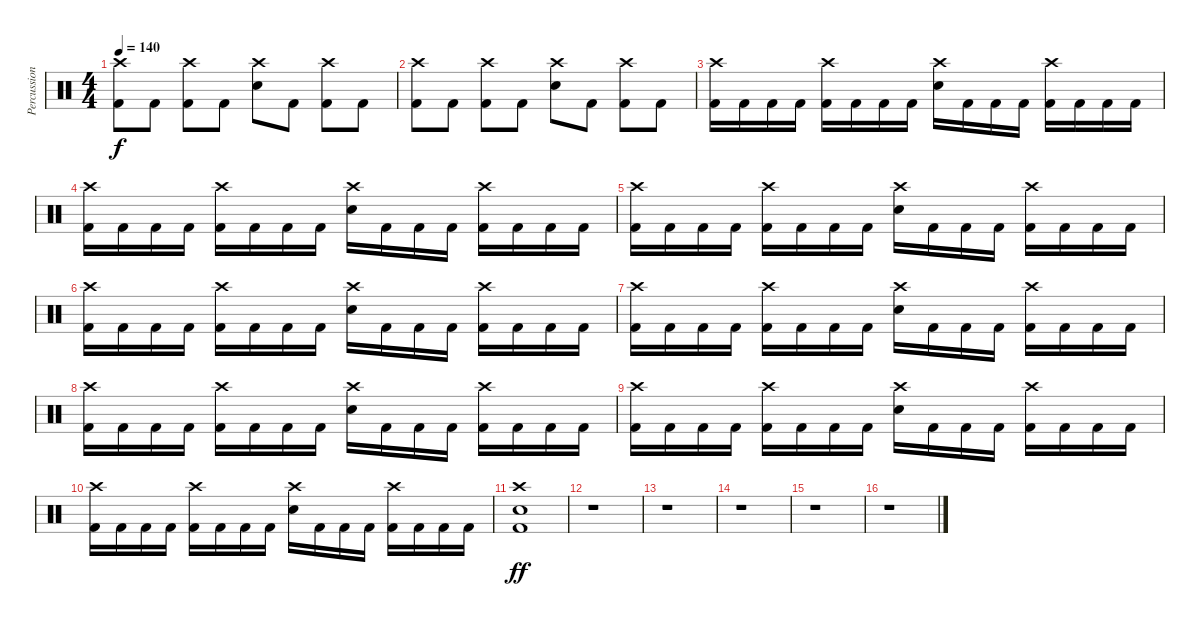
\track ("Percussion" "Percussion") {instrument percussion}
\staff {score}
\articulation defaults
\ts (4 4)
\tempo 140
\clef neutral
\ks c
("Crash high (hit)" "Kick (hit) 2").8{dy f} "Kick (hit) 2".8 ("Crash high (hit)" "Kick (hit) 2").8 "Kick (hit) 2".8 ("Crash high (hit)" "Snare (hit) 2").8 "Kick (hit) 2".8 ("Crash high (hit)" "Kick (hit) 2").8 "Kick (hit) 2".8 |
("Crash high (hit)" "Kick (hit) 2").8 "Kick (hit) 2".8 ("Crash high (hit)" "Kick (hit) 2").8 "Kick (hit) 2".8 ("Crash high (hit)" "Snare (hit) 2").8 "Kick (hit) 2".8 ("Crash high (hit)" "Kick (hit) 2").8 "Kick (hit) 2".8 |
("Crash high (hit)" "Kick (hit) 2").16 "Kick (hit) 2".16 "Kick (hit) 2".16 "Kick (hit) 2".16 ("Crash high (hit)" "Kick (hit) 2").16 "Kick (hit) 2".16 "Kick (hit) 2".16 "Kick (hit) 2".16 ("Crash high (hit)" "Snare (hit) 2").16 "Kick (hit) 2".16 "Kick (hit) 2".16 "Kick (hit) 2".16 ("Crash high (hit)" "Kick (hit) 2").16 "Kick (hit) 2".16 "Kick (hit) 2".16 "Kick (hit) 2".16 |
("Crash high (hit)" "Kick (hit) 2").16 "Kick (hit) 2".16 "Kick (hit) 2".16 "Kick (hit) 2".16 ("Crash high (hit)" "Kick (hit) 2").16 "Kick (hit) 2".16 "Kick (hit) 2".16 "Kick (hit) 2".16 ("Crash high (hit)" "Snare (hit) 2").16 "Kick (hit) 2".16 "Kick (hit) 2".16 "Kick (hit) 2".16 ("Crash high (hit)" "Kick (hit) 2").16 "Kick (hit) 2".16 "Kick (hit) 2".16 "Kick (hit) 2".16 |
("Crash high (hit)" "Kick (hit) 2").16 "Kick (hit) 2".16 "Kick (hit) 2".16 "Kick (hit) 2".16 ("Crash high (hit)" "Kick (hit) 2").16 "Kick (hit) 2".16 "Kick (hit) 2".16 "Kick (hit) 2".16 ("Crash high (hit)" "Snare (hit) 2").16 "Kick (hit) 2".16 "Kick (hit) 2".16 "Kick (hit) 2".16 ("Crash high (hit)" "Kick (hit) 2").16 "Kick (hit) 2".16 "Kick (hit) 2".16 "Kick (hit) 2".16 |
("Crash high (hit)" "Kick (hit) 2").16 "Kick (hit) 2".16 "Kick (hit) 2".16 "Kick (hit) 2".16 ("Crash high (hit)" "Kick (hit) 2").16 "Kick (hit) 2".16 "Kick (hit) 2".16 "Kick (hit) 2".16 ("Crash high (hit)" "Snare (hit) 2").16 "Kick (hit) 2".16 "Kick (hit) 2".16 "Kick (hit) 2".16 ("Crash high (hit)" "Kick (hit) 2").16 "Kick (hit) 2".16 "Kick (hit) 2".16 "Kick (hit) 2".16 |
("Crash high (hit)" "Kick (hit) 2").16 "Kick (hit) 2".16 "Kick (hit) 2".16 "Kick (hit) 2".16 ("Crash high (hit)" "Kick (hit) 2").16 "Kick (hit) 2".16 "Kick (hit) 2".16 "Kick (hit) 2".16 ("Crash high (hit)" "Snare (hit) 2").16 "Kick (hit) 2".16 "Kick (hit) 2".16 "Kick (hit) 2".16 ("Crash high (hit)" "Kick (hit) 2").16 "Kick (hit) 2".16 "Kick (hit) 2".16 "Kick (hit) 2".16 |
("Crash high (hit)" "Kick (hit) 2").16 "Kick (hit) 2".16 "Kick (hit) 2".16 "Kick (hit) 2".16 ("Crash high (hit)" "Kick (hit) 2").16 "Kick (hit) 2".16 "Kick (hit) 2".16 "Kick (hit) 2".16 ("Crash high (hit)" "Snare (hit) 2").16 "Kick (hit) 2".16 "Kick (hit) 2".16 "Kick (hit) 2".16 ("Crash high (hit)" "Kick (hit) 2").16 "Kick (hit) 2".16 "Kick (hit) 2".16 "Kick (hit) 2".16 |
("Crash high (hit)" "Kick (hit) 2").16 "Kick (hit) 2".16 "Kick (hit) 2".16 "Kick (hit) 2".16 ("Crash high (hit)" "Kick (hit) 2").16 "Kick (hit) 2".16 "Kick (hit) 2".16 "Kick (hit) 2".16 ("Crash high (hit)" "Snare (hit) 2").16 "Kick (hit) 2".16 "Kick (hit) 2".16 "Kick (hit) 2".16 ("Crash high (hit)" "Kick (hit) 2").16 "Kick (hit) 2".16 "Kick (hit) 2".16 "Kick (hit) 2".16 |
("Crash high (hit)" "Kick (hit) 2").16 "Kick (hit) 2".16 "Kick (hit) 2".16 "Kick (hit) 2".16 ("Crash high (hit)" "Kick (hit) 2").16 "Kick (hit) 2".16 "Kick (hit) 2".16 "Kick (hit) 2".16 ("Crash high (hit)" "Snare (hit) 2").16 "Kick (hit) 2".16 "Kick (hit) 2".16 "Kick (hit) 2".16 ("Crash high (hit)" "Kick (hit) 2").16 "Kick (hit) 2".16 "Kick (hit) 2".16 "Kick (hit) 2".16 |
("Crash high (hit)" "Snare (hit) 2" "Kick (hit) 2").1{dy ff} |
r.1 |
r.1 |
r.1 |
r.1 |
r.1
